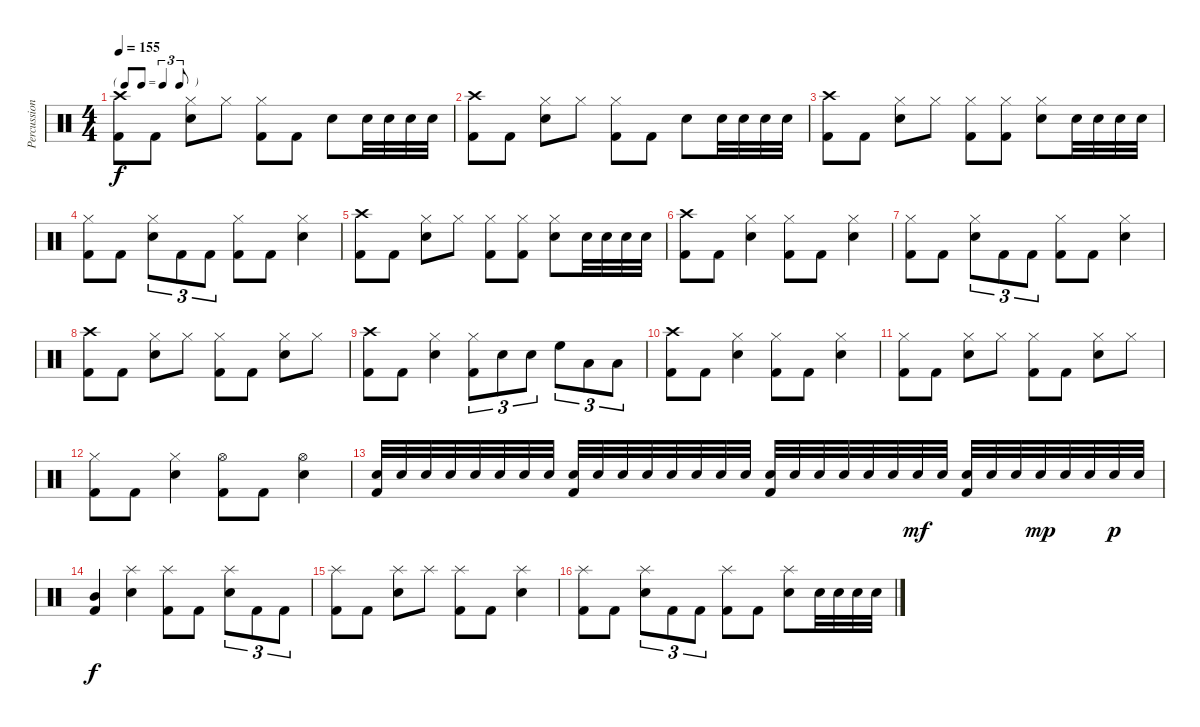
\track ("Percussion" "Percussion") {instrument percussion}
\staff {score}
\articulation defaults
\ts (4 4)
\tf triplet8th
\tempo 155
\clef neutral
\ks c
("Kick (hit) 2" "Crash high (hit)").8{dy f} "Kick (hit) 2".8 ("Snare (hit) 2" "Hi-Hat (closed)").8 "Hi-Hat (closed)".8 ("Kick (hit) 2" "Hi-Hat (closed)").8 "Kick (hit) 2".8 "Snare (hit) 2".8 "Snare (hit) 2".32 "Snare (hit) 2".32 "Snare (hit) 2".32 "Snare (hit) 2".32 |
("Kick (hit) 2" "Crash high (hit)").8 "Kick (hit) 2".8 ("Snare (hit) 2" "Hi-Hat (closed)").8 "Hi-Hat (closed)".8 ("Kick (hit) 2" "Hi-Hat (closed)").8 "Kick (hit) 2".8 "Snare (hit) 2".8 "Snare (hit) 2".32 "Snare (hit) 2".32 "Snare (hit) 2".32 "Snare (hit) 2".32 |
("Kick (hit) 2" "Crash high (hit)").8 "Kick (hit) 2".8 ("Snare (hit) 2" "Hi-Hat (closed)").8 "Hi-Hat (closed)".8 ("Kick (hit) 2" "Hi-Hat (closed)").8 ("Kick (hit) 2" "Hi-Hat (closed)").8 ("Snare (hit) 2" "Hi-Hat (closed)").8 "Snare (hit) 2".32 "Snare (hit) 2".32 "Snare (hit) 2".32 "Snare (hit) 2".32 |
("Kick (hit) 2" "Hi-Hat (closed)").8 "Kick (hit) 2".8 ("Snare (hit) 2" "Hi-Hat (closed)").8{tu (3 2)} "Kick (hit) 2".8{tu (3 2)} "Kick (hit) 2".8{tu (3 2)} ("Kick (hit) 2" "Hi-Hat (closed)").8 "Kick (hit) 2".8 ("Snare (hit) 2" "Hi-Hat (closed)").4 |
("Kick (hit) 2" "Crash high (hit)").8 "Kick (hit) 2".8 ("Snare (hit) 2" "Hi-Hat (closed)").8 "Hi-Hat (closed)".8 ("Kick (hit) 2" "Hi-Hat (closed)").8 ("Kick (hit) 2" "Hi-Hat (closed)").8 ("Snare (hit) 2" "Hi-Hat (closed)").8 "Snare (hit) 2".32 "Snare (hit) 2".32 "Snare (hit) 2".32 "Snare (hit) 2".32 |
("Kick (hit) 2" "Crash high (hit)").8 "Kick (hit) 2".8 ("Snare (hit) 2" "Hi-Hat (closed)").4 ("Kick (hit) 2" "Hi-Hat (closed)").8 "Kick (hit) 2".8 ("Snare (hit) 2" "Hi-Hat (closed)").4 |
("Kick (hit) 2" "Hi-Hat (closed)").8 "Kick (hit) 2".8 ("Snare (hit) 2" "Hi-Hat (closed)").8{tu (3 2)} "Kick (hit) 2".8{tu (3 2)} "Kick (hit) 2".8{tu (3 2)} ("Kick (hit) 2" "Hi-Hat (closed)").8 "Kick (hit) 2".8 ("Snare (hit) 2" "Hi-Hat (closed)").4 |
("Kick (hit) 2" "Crash high (hit)").8 "Kick (hit) 2".8 ("Snare (hit) 2" "Hi-Hat (closed)").8 "Hi-Hat (closed)".8 ("Kick (hit) 2" "Hi-Hat (closed)").8 "Kick (hit) 2".8 ("Snare (hit) 2" "Hi-Hat (closed)").8 "Hi-Hat (closed)".8 |
("Kick (hit) 2" "Crash high (hit)").8 "Kick (hit) 2".8 ("Snare (hit) 2" "Hi-Hat (closed)").4 ("Kick (hit) 2" "Hi-Hat (closed)").8{tu (3 2)} "Snare (hit) 2".8{tu (3 2)} "Snare (hit) 2".8{tu (3 2)} "High Floor Tom (hit)".8{tu (3 2)} "Low Tom (hit)".8{tu (3 2)} "Low Floor Tom (hit)".8{tu (3 2)} |
("Kick (hit) 2" "Crash high (hit)").8 "Kick (hit) 2".8 ("Snare (hit) 2" "Hi-Hat (closed)").4 ("Kick (hit) 2" "Hi-Hat (closed)").8 "Kick (hit) 2".8 ("Snare (hit) 2" "Hi-Hat (closed)").4 |
("Kick (hit) 2" "Hi-Hat (closed)").8 "Kick (hit) 2".8 ("Snare (hit) 2" "Hi-Hat (closed)").8 "Hi-Hat (closed)".8 ("Kick (hit) 2" "Hi-Hat (closed)").8 "Kick (hit) 2".8 ("Snare (hit) 2" "Hi-Hat (closed)").8 "Hi-Hat (closed)".8 |
("Kick (hit) 2" "Hi-Hat (closed)").8 "Kick (hit) 2".8 ("Snare (hit) 2" "Hi-Hat (closed)").4 ("Kick (hit) 2" "Hi-Hat (open)").8 "Kick (hit) 2".8 ("Snare (hit) 2" "Hi-Hat (open)").4 |
("Snare (hit) 2" "Kick (hit) 2").32 "Snare (hit) 2".32 "Snare (hit) 2".32 "Snare (hit) 2".32 "Snare (hit) 2".32 "Snare (hit) 2".32 "Snare (hit) 2".32 "Snare (hit) 2".32 ("Snare (hit) 2" "Kick (hit) 2").32 "Snare (hit) 2".32 "Snare (hit) 2".32 "Snare (hit) 2".32 "Snare (hit) 2".32 "Snare (hit) 2".32 "Snare (hit) 2".32 "Snare (hit) 2".32 ("Snare (hit) 2" "Kick (hit) 2").32 "Snare (hit) 2".32 "Snare (hit) 2".32 "Snare (hit) 2".32 "Snare (hit) 2".32 "Snare (hit) 2".32 "Snare (hit) 2".32{dy mf} "Snare (hit) 2".32 ("Snare (hit) 2" "Kick (hit) 2").32 "Snare (hit) 2".32 "Snare (hit) 2".32 "Snare (hit) 2".32{dy mp} "Snare (hit) 2".32 "Snare (hit) 2".32 "Snare (hit) 2".32{dy p} "Snare (hit) 2".32 |
("Kick (hit) 2" "Mid Tom (hit)").4{dy f} ("Snare (hit) 2" "Splash (hit)").4 ("Kick (hit) 2" "Splash (hit)").8 "Kick (hit) 2".8 ("Snare (hit) 2" "Splash (hit)").8{tu (3 2)} "Kick (hit) 2".8{tu (3 2)} "Kick (hit) 2".8{tu (3 2)} |
("Kick (hit) 2" "Splash (hit)").8 "Kick (hit) 2".8 ("Snare (hit) 2" "Splash (hit)").8 "Splash (hit)".8 ("Kick (hit) 2" "Splash (hit)").8 "Kick (hit) 2".8 ("Snare (hit) 2" "Splash (hit)").4 |
("Kick (hit) 2" "Splash (hit)").8 "Kick (hit) 2".8 ("Snare (hit) 2" "Splash (hit)").8{tu (3 2)} "Kick (hit) 2".8{tu (3 2)} "Kick (hit) 2".8{tu (3 2)} ("Kick (hit) 2" "Splash (hit)").8 "Kick (hit) 2".8 ("Snare (hit) 2" "Splash (hit)").8 "Snare (hit) 2".32 "Snare (hit) 2".32 "Snare (hit) 2".32 "Snare (hit) 2".32
